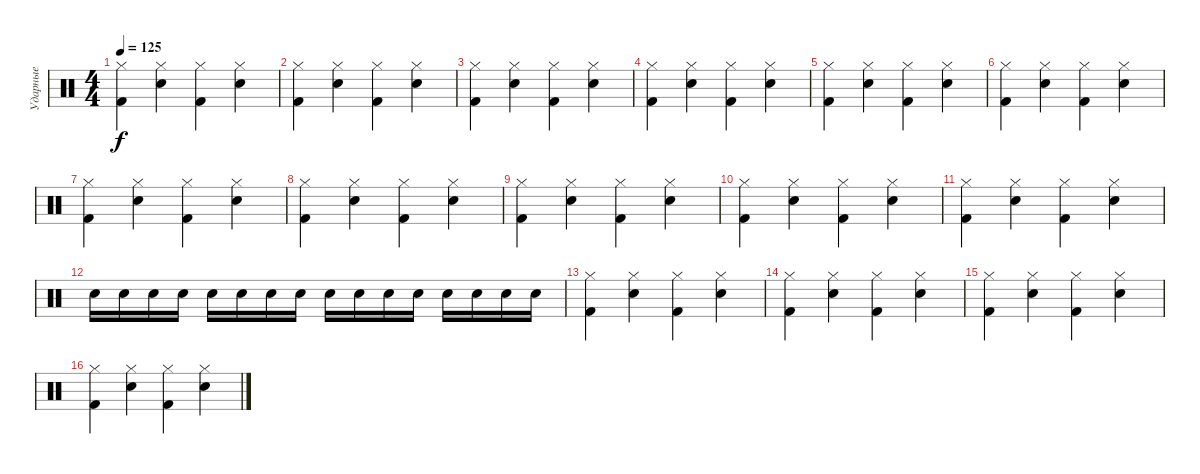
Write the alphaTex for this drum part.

\track ("Ударные" "Ударные") {instrument percussion}
\staff {score}
\articulation defaults
\ts (4 4)
\tempo 125
\clef neutral
\ks c
("Hi-Hat (closed)" "Kick (hit) 2").4{dy f} ("Hi-Hat (closed)" "Snare (hit) 2").4 ("Hi-Hat (closed)" "Kick (hit) 2").4 ("Hi-Hat (closed)" "Snare (hit) 2").4 |
("Hi-Hat (closed)" "Kick (hit) 2").4 ("Hi-Hat (closed)" "Snare (hit) 2").4 ("Hi-Hat (closed)" "Kick (hit) 2").4 ("Hi-Hat (closed)" "Snare (hit) 2").4 |
("Hi-Hat (closed)" "Kick (hit) 2").4 ("Hi-Hat (closed)" "Snare (hit) 2").4 ("Hi-Hat (closed)" "Kick (hit) 2").4 ("Hi-Hat (closed)" "Snare (hit) 2").4 |
("Hi-Hat (closed)" "Kick (hit) 2").4 ("Hi-Hat (closed)" "Snare (hit) 2").4 ("Hi-Hat (closed)" "Kick (hit) 2").4 ("Hi-Hat (closed)" "Snare (hit) 2").4 |
("Hi-Hat (closed)" "Kick (hit) 2").4 ("Hi-Hat (closed)" "Snare (hit) 2").4 ("Hi-Hat (closed)" "Kick (hit) 2").4 ("Hi-Hat (closed)" "Snare (hit) 2").4 |
("Hi-Hat (closed)" "Kick (hit) 2").4 ("Hi-Hat (closed)" "Snare (hit) 2").4 ("Hi-Hat (closed)" "Kick (hit) 2").4 ("Hi-Hat (closed)" "Snare (hit) 2").4 |
("Hi-Hat (closed)" "Kick (hit) 2").4 ("Hi-Hat (closed)" "Snare (hit) 2").4 ("Hi-Hat (closed)" "Kick (hit) 2").4 ("Hi-Hat (closed)" "Snare (hit) 2").4 |
("Hi-Hat (closed)" "Kick (hit) 2").4 ("Hi-Hat (closed)" "Snare (hit) 2").4 ("Hi-Hat (closed)" "Kick (hit) 2").4 ("Hi-Hat (closed)" "Snare (hit) 2").4 |
("Hi-Hat (closed)" "Kick (hit) 2").4 ("Hi-Hat (closed)" "Snare (hit) 2").4 ("Hi-Hat (closed)" "Kick (hit) 2").4 ("Hi-Hat (closed)" "Snare (hit) 2").4 |
("Hi-Hat (closed)" "Kick (hit) 2").4 ("Hi-Hat (closed)" "Snare (hit) 2").4 ("Hi-Hat (closed)" "Kick (hit) 2").4 ("Hi-Hat (closed)" "Snare (hit) 2").4 |
("Hi-Hat (closed)" "Kick (hit) 2").4 ("Hi-Hat (closed)" "Snare (hit) 2").4 ("Hi-Hat (closed)" "Kick (hit) 2").4 ("Hi-Hat (closed)" "Snare (hit) 2").4 |
"Snare (hit) 2".16 "Snare (hit) 2".16 "Snare (hit) 2".16 "Snare (hit) 2".16 "Snare (hit) 2".16 "Snare (hit) 2".16 "Snare (hit) 2".16 "Snare (hit) 2".16 "Snare (hit) 2".16 "Snare (hit) 2".16 "Snare (hit) 2".16 "Snare (hit) 2".16 "Snare (hit) 2".16 "Snare (hit) 2".16 "Snare (hit) 2".16 "Snare (hit) 2".16 |
("Hi-Hat (closed)" "Kick (hit) 2").4 ("Hi-Hat (closed)" "Snare (hit) 2").4 ("Hi-Hat (closed)" "Kick (hit) 2").4 ("Hi-Hat (closed)" "Snare (hit) 2").4 |
("Hi-Hat (closed)" "Kick (hit) 2").4 ("Hi-Hat (closed)" "Snare (hit) 2").4 ("Hi-Hat (closed)" "Kick (hit) 2").4 ("Hi-Hat (closed)" "Snare (hit) 2").4 |
("Hi-Hat (closed)" "Kick (hit) 2").4 ("Hi-Hat (closed)" "Snare (hit) 2").4 ("Hi-Hat (closed)" "Kick (hit) 2").4 ("Hi-Hat (closed)" "Snare (hit) 2").4 |
("Hi-Hat (closed)" "Kick (hit) 2").4 ("Hi-Hat (closed)" "Snare (hit) 2").4 ("Hi-Hat (closed)" "Kick (hit) 2").4 ("Hi-Hat (closed)" "Snare (hit) 2").4
